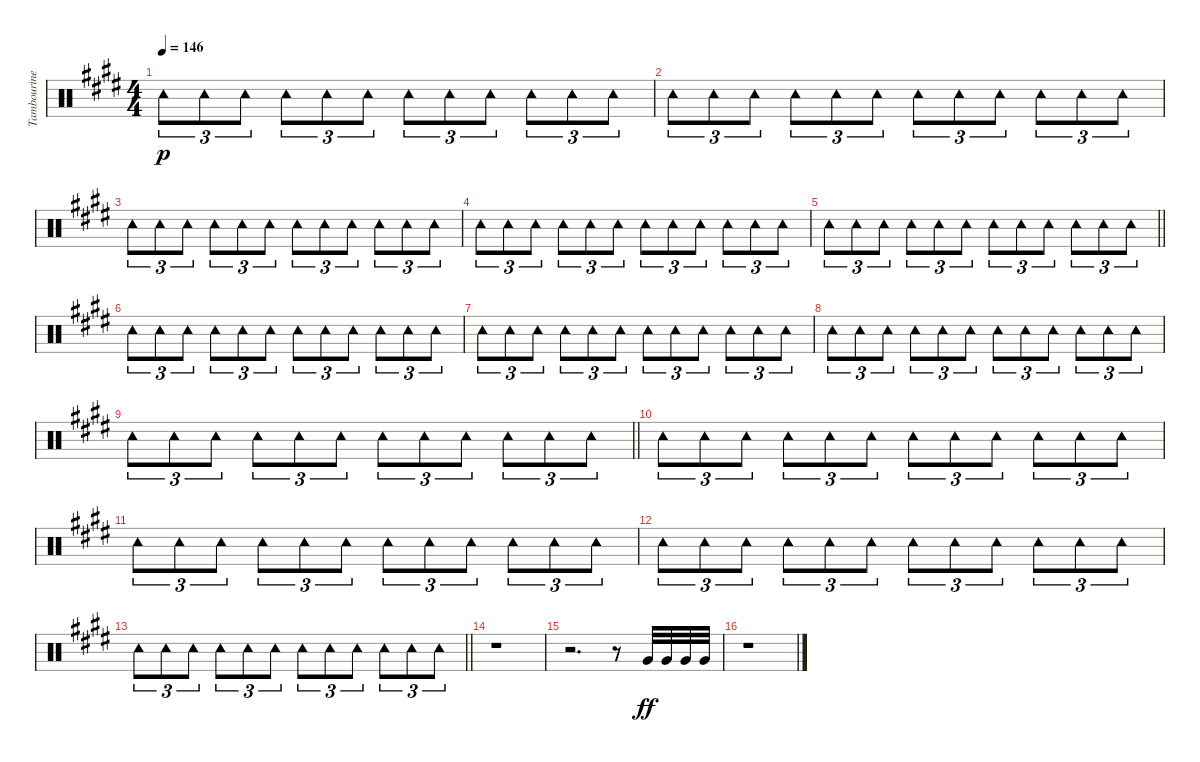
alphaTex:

\track ("Tambourine" "Tambourine") {instrument percussion}
\staff {score}
\articulation defaults
\ts (4 4)
\tempo 146
\clef neutral
\ks c#minor "Tambourine (hit)".8{tu (3 2) dy p} "Tambourine (hit)".8{tu (3 2)} "Tambourine (hit)".8{tu (3 2)} "Tambourine (hit)".8{tu (3 2)} "Tambourine (hit)".8{tu (3 2)} "Tambourine (hit)".8{tu (3 2)} "Tambourine (hit)".8{tu (3 2)} "Tambourine (hit)".8{tu (3 2)} "Tambourine (hit)".8{tu (3 2)} "Tambourine (hit)".8{tu (3 2)} "Tambourine (hit)".8{tu (3 2)} "Tambourine (hit)".8{tu (3 2)}
|
"Tambourine (hit)".8{tu (3 2)} "Tambourine (hit)".8{tu (3 2)} "Tambourine (hit)".8{tu (3 2)} "Tambourine (hit)".8{tu (3 2)} "Tambourine (hit)".8{tu (3 2)} "Tambourine (hit)".8{tu (3 2)} "Tambourine (hit)".8{tu (3 2)} "Tambourine (hit)".8{tu (3 2)} "Tambourine (hit)".8{tu (3 2)} "Tambourine (hit)".8{tu (3 2)} "Tambourine (hit)".8{tu (3 2)} "Tambourine (hit)".8{tu (3 2)} |
"Tambourine (hit)".8{tu (3 2)} "Tambourine (hit)".8{tu (3 2)} "Tambourine (hit)".8{tu (3 2)} "Tambourine (hit)".8{tu (3 2)} "Tambourine (hit)".8{tu (3 2)} "Tambourine (hit)".8{tu (3 2)} "Tambourine (hit)".8{tu (3 2)} "Tambourine (hit)".8{tu (3 2)} "Tambourine (hit)".8{tu (3 2)} "Tambourine (hit)".8{tu (3 2)} "Tambourine (hit)".8{tu (3 2)} "Tambourine (hit)".8{tu (3 2)} |
"Tambourine (hit)".8{tu (3 2)} "Tambourine (hit)".8{tu (3 2)} "Tambourine (hit)".8{tu (3 2)} "Tambourine (hit)".8{tu (3 2)} "Tambourine (hit)".8{tu (3 2)} "Tambourine (hit)".8{tu (3 2)} "Tambourine (hit)".8{tu (3 2)} "Tambourine (hit)".8{tu (3 2)} "Tambourine (hit)".8{tu (3 2)} "Tambourine (hit)".8{tu (3 2)} "Tambourine (hit)".8{tu (3 2)} "Tambourine (hit)".8{tu (3 2)} |
\barLineRight lightlight "Tambourine (hit)".8{tu (3 2)} "Tambourine (hit)".8{tu (3 2)} "Tambourine (hit)".8{tu (3 2)} "Tambourine (hit)".8{tu (3 2)} "Tambourine (hit)".8{tu (3 2)} "Tambourine (hit)".8{tu (3 2)} "Tambourine (hit)".8{tu (3 2)} "Tambourine (hit)".8{tu (3 2)} "Tambourine (hit)".8{tu (3 2)} "Tambourine (hit)".8{tu (3 2)} "Tambourine (hit)".8{tu (3 2)} "Tambourine (hit)".8{tu (3 2)}
|
"Tambourine (hit)".8{tu (3 2)} "Tambourine (hit)".8{tu (3 2)} "Tambourine (hit)".8{tu (3 2)} "Tambourine (hit)".8{tu (3 2)} "Tambourine (hit)".8{tu (3 2)} "Tambourine (hit)".8{tu (3 2)} "Tambourine (hit)".8{tu (3 2)} "Tambourine (hit)".8{tu (3 2)} "Tambourine (hit)".8{tu (3 2)} "Tambourine (hit)".8{tu (3 2)} "Tambourine (hit)".8{tu (3 2)} "Tambourine (hit)".8{tu (3 2)} |
"Tambourine (hit)".8{tu (3 2)} "Tambourine (hit)".8{tu (3 2)} "Tambourine (hit)".8{tu (3 2)} "Tambourine (hit)".8{tu (3 2)} "Tambourine (hit)".8{tu (3 2)} "Tambourine (hit)".8{tu (3 2)} "Tambourine (hit)".8{tu (3 2)} "Tambourine (hit)".8{tu (3 2)} "Tambourine (hit)".8{tu (3 2)} "Tambourine (hit)".8{tu (3 2)} "Tambourine (hit)".8{tu (3 2)} "Tambourine (hit)".8{tu (3 2)} |
"Tambourine (hit)".8{tu (3 2)} "Tambourine (hit)".8{tu (3 2)} "Tambourine (hit)".8{tu (3 2)} "Tambourine (hit)".8{tu (3 2)} "Tambourine (hit)".8{tu (3 2)} "Tambourine (hit)".8{tu (3 2)} "Tambourine (hit)".8{tu (3 2)} "Tambourine (hit)".8{tu (3 2)} "Tambourine (hit)".8{tu (3 2)} "Tambourine (hit)".8{tu (3 2)} "Tambourine (hit)".8{tu (3 2)} "Tambourine (hit)".8{tu (3 2)} |
\barLineRight lightlight "Tambourine (hit)".8{tu (3 2)} "Tambourine (hit)".8{tu (3 2)} "Tambourine (hit)".8{tu (3 2)} "Tambourine (hit)".8{tu (3 2)} "Tambourine (hit)".8{tu (3 2)} "Tambourine (hit)".8{tu (3 2)} "Tambourine (hit)".8{tu (3 2)} "Tambourine (hit)".8{tu (3 2)} "Tambourine (hit)".8{tu (3 2)} "Tambourine (hit)".8{tu (3 2)} "Tambourine (hit)".8{tu (3 2)} "Tambourine (hit)".8{tu (3 2)}
|
"Tambourine (hit)".8{tu (3 2)} "Tambourine (hit)".8{tu (3 2)} "Tambourine (hit)".8{tu (3 2)} "Tambourine (hit)".8{tu (3 2)} "Tambourine (hit)".8{tu (3 2)} "Tambourine (hit)".8{tu (3 2)} "Tambourine (hit)".8{tu (3 2)} "Tambourine (hit)".8{tu (3 2)} "Tambourine (hit)".8{tu (3 2)} "Tambourine (hit)".8{tu (3 2)} "Tambourine (hit)".8{tu (3 2)} "Tambourine (hit)".8{tu (3 2)} |
"Tambourine (hit)".8{tu (3 2)} "Tambourine (hit)".8{tu (3 2)} "Tambourine (hit)".8{tu (3 2)} "Tambourine (hit)".8{tu (3 2)} "Tambourine (hit)".8{tu (3 2)} "Tambourine (hit)".8{tu (3 2)} "Tambourine (hit)".8{tu (3 2)} "Tambourine (hit)".8{tu (3 2)} "Tambourine (hit)".8{tu (3 2)} "Tambourine (hit)".8{tu (3 2)} "Tambourine (hit)".8{tu (3 2)} "Tambourine (hit)".8{tu (3 2)} |
"Tambourine (hit)".8{tu (3 2)} "Tambourine (hit)".8{tu (3 2)} "Tambourine (hit)".8{tu (3 2)} "Tambourine (hit)".8{tu (3 2)} "Tambourine (hit)".8{tu (3 2)} "Tambourine (hit)".8{tu (3 2)} "Tambourine (hit)".8{tu (3 2)} "Tambourine (hit)".8{tu (3 2)} "Tambourine (hit)".8{tu (3 2)} "Tambourine (hit)".8{tu (3 2)} "Tambourine (hit)".8{tu (3 2)} "Tambourine (hit)".8{tu (3 2)} |
\barLineRight lightlight "Tambourine (hit)".8{tu (3 2)} "Tambourine (hit)".8{tu (3 2)} "Tambourine (hit)".8{tu (3 2)} "Tambourine (hit)".8{tu (3 2)} "Tambourine (hit)".8{tu (3 2)} "Tambourine (hit)".8{tu (3 2)} "Tambourine (hit)".8{tu (3 2)} "Tambourine (hit)".8{tu (3 2)} "Tambourine (hit)".8{tu (3 2)} "Tambourine (hit)".8{tu (3 2)} "Tambourine (hit)".8{tu (3 2)} "Tambourine (hit)".8{tu (3 2)}
|
r.1 |
r.2{d} r.8 "Very Low Tom (hit)".32{dy ff} "Very Low Tom (hit)".32 "Very Low Tom (hit)".32 "Very Low Tom (hit)".32 |
r.1
